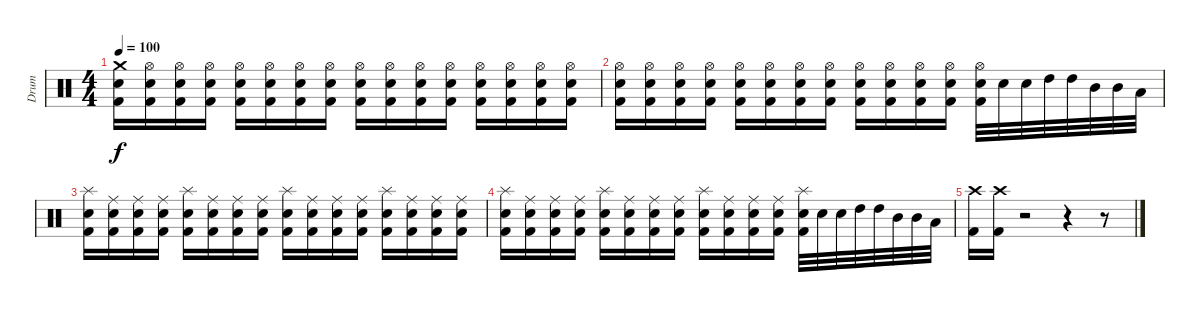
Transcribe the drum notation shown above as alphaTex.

\track ("Drum" "Drum") {instrument percussion}
\staff {score}
\articulation defaults
\ts (4 4)
\tempo 100
\clef neutral
\ks c
("Crash medium (hit)" "Electric Snare (hit)" "Kick (hit) 2").16{dy f} ("Hi-Hat (open)" "Electric Snare (hit)" "Kick (hit) 2").16 ("Hi-Hat (open)" "Electric Snare (hit)" "Kick (hit) 2").16 ("Hi-Hat (open)" "Electric Snare (hit)" "Kick (hit) 2").16 ("Hi-Hat (open)" "Electric Snare (hit)" "Kick (hit) 2").16 ("Hi-Hat (open)" "Electric Snare (hit)" "Kick (hit) 2").16 ("Hi-Hat (open)" "Electric Snare (hit)" "Kick (hit) 2").16 ("Hi-Hat (open)" "Electric Snare (hit)" "Kick (hit) 2").16 ("Hi-Hat (open)" "Electric Snare (hit)" "Kick (hit) 2").16 ("Hi-Hat (open)" "Electric Snare (hit)" "Kick (hit) 2").16 ("Hi-Hat (open)" "Electric Snare (hit)" "Kick (hit) 2").16 ("Hi-Hat (open)" "Electric Snare (hit)" "Kick (hit) 2").16 ("Hi-Hat (open)" "Electric Snare (hit)" "Kick (hit) 2").16 ("Hi-Hat (open)" "Electric Snare (hit)" "Kick (hit) 2").16 ("Hi-Hat (open)" "Electric Snare (hit)" "Kick (hit) 2").16 ("Hi-Hat (open)" "Electric Snare (hit)" "Kick (hit) 2").16 |
("Hi-Hat (open)" "Electric Snare (hit)" "Kick (hit) 2").16 ("Hi-Hat (open)" "Electric Snare (hit)" "Kick (hit) 2").16 ("Hi-Hat (open)" "Electric Snare (hit)" "Kick (hit) 2").16 ("Hi-Hat (open)" "Electric Snare (hit)" "Kick (hit) 2").16 ("Hi-Hat (open)" "Electric Snare (hit)" "Kick (hit) 2").16 ("Hi-Hat (open)" "Electric Snare (hit)" "Kick (hit) 2").16 ("Hi-Hat (open)" "Electric Snare (hit)" "Kick (hit) 2").16 ("Hi-Hat (open)" "Electric Snare (hit)" "Kick (hit) 2").16 ("Hi-Hat (open)" "Electric Snare (hit)" "Kick (hit) 2").16 ("Hi-Hat (open)" "Electric Snare (hit)" "Kick (hit) 2").16 ("Hi-Hat (open)" "Electric Snare (hit)" "Kick (hit) 2").16 ("Hi-Hat (open)" "Electric Snare (hit)" "Kick (hit) 2").16 ("Hi-Hat (open)" "Electric Snare (hit)" "Kick (hit) 2").32 "Electric Snare (hit)".32 "Electric Snare (hit)".32 "High Tom (hit)".32 "High Tom (hit)".32 "Mid Tom (hit)".32 "Mid Tom (hit)".32 "Low Tom (hit)".32 |
("Splash (hit)" "Electric Snare (hit)" "Kick (hit) 2").16 ("Ride (middle)" "Electric Snare (hit)" "Kick (hit) 2").16 ("Ride (middle)" "Electric Snare (hit)" "Kick (hit) 2").16 ("Ride (middle)" "Electric Snare (hit)" "Kick (hit) 2").16 ("Splash (hit)" "Electric Snare (hit)" "Kick (hit) 2").16 ("Ride (middle)" "Electric Snare (hit)" "Kick (hit) 2").16 ("Ride (middle)" "Electric Snare (hit)" "Kick (hit) 2").16 ("Ride (middle)" "Electric Snare (hit)" "Kick (hit) 2").16 ("Splash (hit)" "Electric Snare (hit)" "Kick (hit) 2").16 ("Ride (middle)" "Electric Snare (hit)" "Kick (hit) 2").16 ("Ride (middle)" "Electric Snare (hit)" "Kick (hit) 2").16 ("Ride (middle)" "Electric Snare (hit)" "Kick (hit) 2").16 ("Splash (hit)" "Electric Snare (hit)" "Kick (hit) 2").16 ("Ride (middle)" "Electric Snare (hit)" "Kick (hit) 2").16 ("Ride (middle)" "Electric Snare (hit)" "Kick (hit) 2").16 ("Ride (middle)" "Electric Snare (hit)" "Kick (hit) 2").16 |
("Splash (hit)" "Electric Snare (hit)" "Kick (hit) 2").16 ("Ride (middle)" "Electric Snare (hit)" "Kick (hit) 2").16 ("Ride (middle)" "Electric Snare (hit)" "Kick (hit) 2").16 ("Ride (middle)" "Electric Snare (hit)" "Kick (hit) 2").16 ("Splash (hit)" "Electric Snare (hit)" "Kick (hit) 2").16 ("Ride (middle)" "Electric Snare (hit)" "Kick (hit) 2").16 ("Ride (middle)" "Electric Snare (hit)" "Kick (hit) 2").16 ("Ride (middle)" "Electric Snare (hit)" "Kick (hit) 2").16 ("Splash (hit)" "Electric Snare (hit)" "Kick (hit) 2").16 ("Ride (middle)" "Electric Snare (hit)" "Kick (hit) 2").16 ("Ride (middle)" "Electric Snare (hit)" "Kick (hit) 2").16 ("Ride (middle)" "Electric Snare (hit)" "Kick (hit) 2").16 ("Splash (hit)" "Electric Snare (hit)" "Kick (hit) 2").32 "Electric Snare (hit)".32 "Electric Snare (hit)".32 "High Tom (hit)".32 "High Tom (hit)".32 "Mid Tom (hit)".32 "Mid Tom (hit)".32 "Low Tom (hit)".32 |
("Crash high (hit)" "Kick (hit) 2").16 ("Crash high (hit)" "Kick (hit) 2").16 r.2 r.4 r.8
